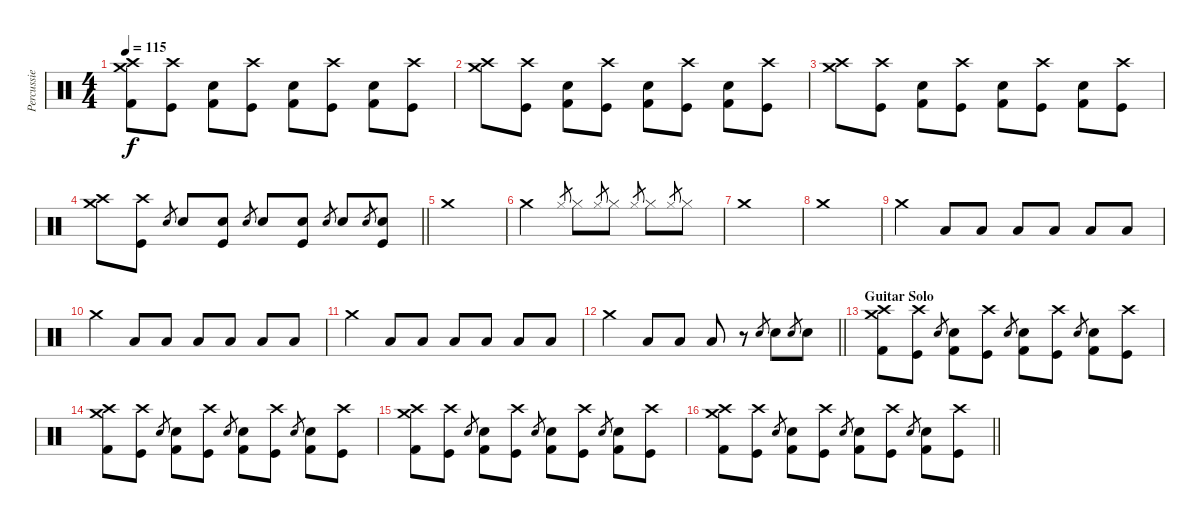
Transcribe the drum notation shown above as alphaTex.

\track ("Percussie" "Percussie") {instrument percussion}
\staff {score}
\articulation defaults
\ts (4 4)
\tempo 115
\clef neutral
\ks c
("Crash medium (hit)" "Crash high (hit)" "Kick (hit) 2").8{dy f} ("Crash high (hit)" "Kick (hit)").8 ("Snare (hit) 2" "Kick (hit) 2").8 ("Crash high (hit)" "Kick (hit)").8 ("Snare (hit) 2" "Kick (hit) 2").8 ("Crash high (hit)" "Kick (hit)").8 ("Snare (hit) 2" "Kick (hit) 2").8 ("Crash high (hit)" "Kick (hit)").8 |
("Crash medium (hit)" "Crash high (hit)").8 ("Crash high (hit)" "Kick (hit)").8 ("Snare (hit) 2" "Kick (hit) 2").8 ("Crash high (hit)" "Kick (hit)").8 ("Snare (hit) 2" "Kick (hit) 2").8 ("Crash high (hit)" "Kick (hit)").8 ("Snare (hit) 2" "Kick (hit) 2").8 ("Crash high (hit)" "Kick (hit)").8 |
("Crash medium (hit)" "Crash high (hit)").8 ("Crash high (hit)" "Kick (hit)").8 ("Snare (hit) 2" "Kick (hit) 2").8 ("Crash high (hit)" "Kick (hit)").8 ("Snare (hit) 2" "Kick (hit) 2").8 ("Crash high (hit)" "Kick (hit)").8 ("Snare (hit) 2" "Kick (hit) 2").8 ("Crash high (hit)" "Kick (hit)").8 |
\barLineRight lightlight
("Crash medium (hit)" "Crash high (hit)").8 ("Crash high (hit)" "Kick (hit)").8 "Snare (hit) 2".8{gr} "Snare (hit) 2".8 ("Snare (hit) 2" "Kick (hit)").8 "Snare (hit) 2".8{gr} "Snare (hit) 2".8 ("Snare (hit) 2" "Kick (hit)").8 "Snare (hit) 2".8{gr} "Snare (hit) 2".8 "Snare (hit) 2".8{gr} ("Snare (hit) 2" "Kick (hit)").8 |
"Crash medium (hit)".1 |
"Crash medium (hit)".2 "Hi-Hat (closed)".8{gr} "Hi-Hat (closed)".8 "Hi-Hat (closed)".8{gr} "Hi-Hat (closed)".8 "Hi-Hat (closed)".8{gr} "Hi-Hat (closed)".8 "Hi-Hat (closed)".8{gr} "Hi-Hat (closed)".8 |
"Crash medium (hit)".1 |
"Crash medium (hit)".1 |
"Crash medium (hit)".4 "Low Floor Tom (hit)".8 "Low Floor Tom (hit)".8 "Low Floor Tom (hit)".8 "Low Floor Tom (hit)".8 "Low Floor Tom (hit)".8 "Low Floor Tom (hit)".8 |
"Crash medium (hit)".4 "Low Floor Tom (hit)".8 "Low Floor Tom (hit)".8 "Low Floor Tom (hit)".8 "Low Floor Tom (hit)".8 "Low Floor Tom (hit)".8 "Low Floor Tom (hit)".8 |
"Crash medium (hit)".4 "Low Floor Tom (hit)".8 "Low Floor Tom (hit)".8 "Low Floor Tom (hit)".8 "Low Floor Tom (hit)".8 "Low Floor Tom (hit)".8 "Low Floor Tom (hit)".8 |
\barLineRight lightlight "Crash medium (hit)".4 "Low Floor Tom (hit)".8 "Low Floor Tom (hit)".8 "Low Floor Tom (hit)".8
r.8 "Snare (hit) 2".8{gr} "Snare (hit) 2".8 "Snare (hit) 2".8{gr} "Snare (hit) 2".8 |
\section ("" "Guitar Solo")
("Crash medium (hit)" "Crash high (hit)" "Kick (hit) 2").8 ("Crash high (hit)" "Kick (hit)").8 "Snare (hit) 2".8{gr} ("Snare (hit) 2" "Kick (hit) 2").8 ("Crash high (hit)" "Kick (hit)").8 "Snare (hit) 2".8{gr} ("Snare (hit) 2" "Kick (hit) 2").8 ("Crash high (hit)" "Kick (hit)").8 "Snare (hit) 2".8{gr} ("Snare (hit) 2" "Kick (hit) 2").8 ("Crash high (hit)" "Kick (hit)").8 |
("Crash medium (hit)" "Crash high (hit)" "Kick (hit) 2").8 ("Crash high (hit)" "Kick (hit)").8 "Snare (hit) 2".8{gr} ("Snare (hit) 2" "Kick (hit) 2").8 ("Crash high (hit)" "Kick (hit)").8 "Snare (hit) 2".8{gr} ("Snare (hit) 2" "Kick (hit) 2").8 ("Crash high (hit)" "Kick (hit)").8 "Snare (hit) 2".8{gr} ("Snare (hit) 2" "Kick (hit) 2").8 ("Crash high (hit)" "Kick (hit)").8 |
("Crash medium (hit)" "Crash high (hit)" "Kick (hit) 2").8 ("Crash high (hit)" "Kick (hit)").8 "Snare (hit) 2".8{gr} ("Snare (hit) 2" "Kick (hit) 2").8 ("Crash high (hit)" "Kick (hit)").8 "Snare (hit) 2".8{gr} ("Snare (hit) 2" "Kick (hit) 2").8 ("Crash high (hit)" "Kick (hit)").8 "Snare (hit) 2".8{gr} ("Snare (hit) 2" "Kick (hit) 2").8 ("Crash high (hit)" "Kick (hit)").8 |
\barLineRight lightlight
("Crash medium (hit)" "Crash high (hit)" "Kick (hit) 2").8 ("Crash high (hit)" "Kick (hit)").8 "Snare (hit) 2".8{gr} ("Snare (hit) 2" "Kick (hit) 2").8 ("Crash high (hit)" "Kick (hit)").8 "Snare (hit) 2".8{gr} ("Snare (hit) 2" "Kick (hit) 2").8 ("Crash high (hit)" "Kick (hit)").8 "Snare (hit) 2".8{gr} ("Snare (hit) 2" "Kick (hit) 2").8 ("Crash high (hit)" "Kick (hit)").8
